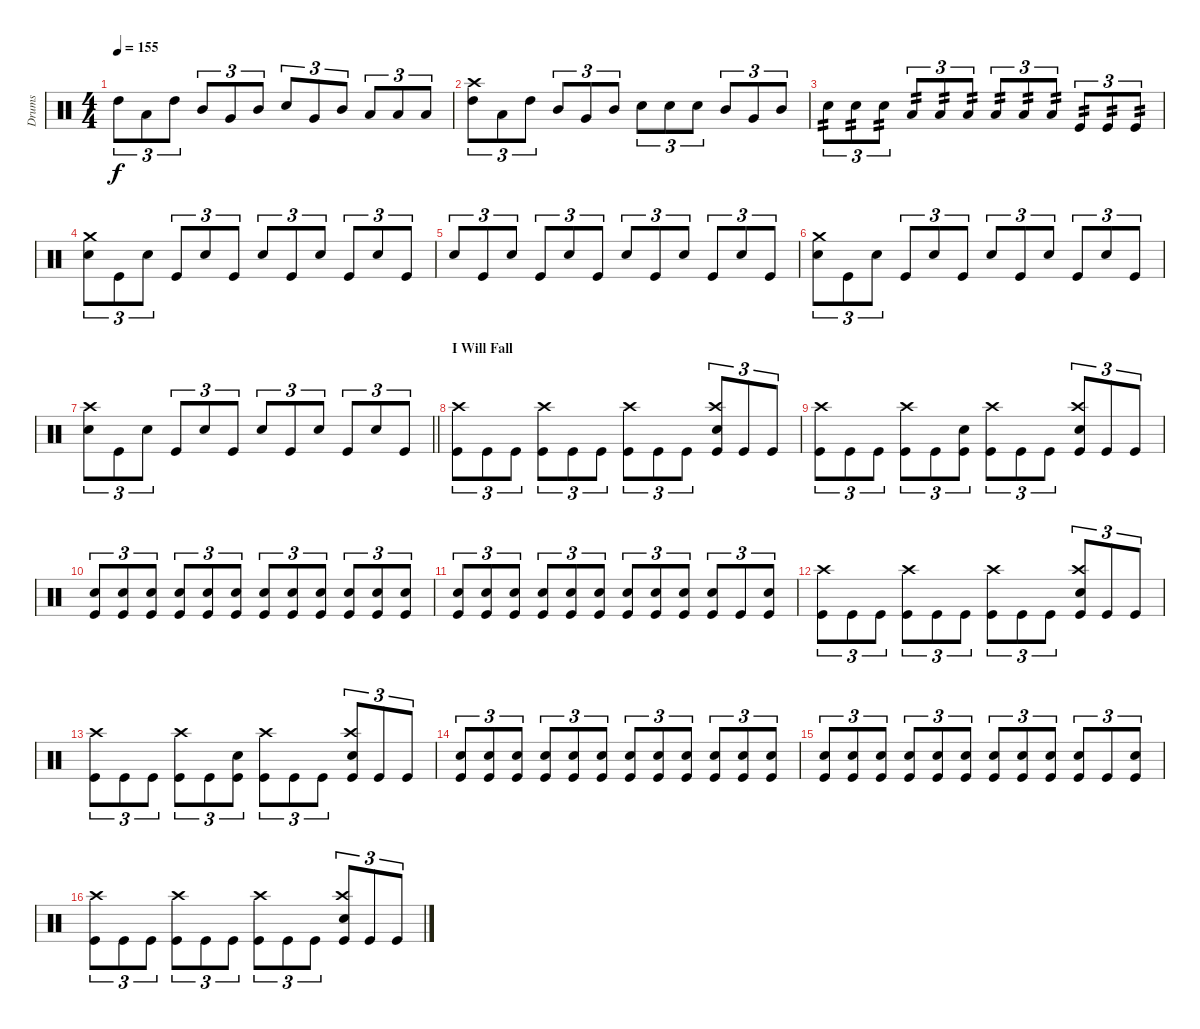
\track ("Drums" "Drums") {instrument percussion}
\staff {score}
\articulation defaults
\ts (4 4)
\tempo 155
\clef neutral
\ks c "High Tom (hit)".8{tu (3 2) dy f} "Low Tom (hit)".8{tu (3 2)} "High Tom (hit)".8{tu (3 2)} "Mid Tom (hit)".8{tu (3 2)} "Very Low Tom (hit)".8{tu (3 2)} "Mid Tom (hit)".8{tu (3 2)} "Electric Snare (hit)".8{tu (3 2)} "Very Low Tom (hit)".8{tu (3 2)} "Mid Tom (hit)".8{tu (3 2)} "Low Tom (hit)".8{tu (3 2)} "Low Floor Tom (hit)".8{tu (3 2)} "Low Tom (hit)".8{tu (3 2)}
|
("Crash high (hit)" "High Tom (hit)").8{tu (3 2)} "Low Tom (hit)".8{tu (3 2)} "High Tom (hit)".8{tu (3 2)} "Mid Tom (hit)".8{tu (3 2)} "Very Low Tom (hit)".8{tu (3 2)} "Mid Tom (hit)".8{tu (3 2)} "Electric Snare (hit)".8{tu (3 2)} "Electric Snare (hit)".8{tu (3 2)} "Electric Snare (hit)".8{tu (3 2)} "Mid Tom (hit)".8{tu (3 2)} "Very Low Tom (hit)".8{tu (3 2)} "Mid Tom (hit)".8{tu (3 2)} |
"Electric Snare (hit)".8{tu (3 2) tp 2} "Electric Snare (hit)".8{tu (3 2) tp 2} "Electric Snare (hit)".8{tu (3 2) tp 2} "Low Tom (hit)".8{tu (3 2) tp 2} "Low Tom (hit)".8{tu (3 2) tp 2} "Low Tom (hit)".8{tu (3 2) tp 2} "Low Floor Tom (hit)".8{tu (3 2) tp 2} "Low Floor Tom (hit)".8{tu (3 2) tp 2} "Low Floor Tom (hit)".8{tu (3 2) tp 2} "Kick (hit)".8{tu (3 2) tp 2} "Kick (hit)".8{tu (3 2) tp 2} "Kick (hit)".8{tu (3 2) tp 2} |
("Crash medium (hit)" "Electric Snare (hit)").8{tu (3 2)} "Kick (hit)".8{tu (3 2)} "Electric Snare (hit)".8{tu (3 2)} "Kick (hit)".8{tu (3 2)} "Electric Snare (hit)".8{tu (3 2)} "Kick (hit)".8{tu (3 2)} "Electric Snare (hit)".8{tu (3 2)} "Kick (hit)".8{tu (3 2)} "Electric Snare (hit)".8{tu (3 2)} "Kick (hit)".8{tu (3 2)} "Electric Snare (hit)".8{tu (3 2)} "Kick (hit)".8{tu (3 2)} |
"Electric Snare (hit)".8{tu (3 2)} "Kick (hit)".8{tu (3 2)} "Electric Snare (hit)".8{tu (3 2)} "Kick (hit)".8{tu (3 2)} "Electric Snare (hit)".8{tu (3 2)} "Kick (hit)".8{tu (3 2)} "Electric Snare (hit)".8{tu (3 2)} "Kick (hit)".8{tu (3 2)} "Electric Snare (hit)".8{tu (3 2)} "Kick (hit)".8{tu (3 2)} "Electric Snare (hit)".8{tu (3 2)} "Kick (hit)".8{tu (3 2)} |
("Crash medium (hit)" "Electric Snare (hit)").8{tu (3 2)} "Kick (hit)".8{tu (3 2)} "Electric Snare (hit)".8{tu (3 2)} "Kick (hit)".8{tu (3 2)} "Electric Snare (hit)".8{tu (3 2)} "Kick (hit)".8{tu (3 2)} "Electric Snare (hit)".8{tu (3 2)} "Kick (hit)".8{tu (3 2)} "Electric Snare (hit)".8{tu (3 2)} "Kick (hit)".8{tu (3 2)} "Electric Snare (hit)".8{tu (3 2)} "Kick (hit)".8{tu (3 2)} |
\barLineRight lightlight
("Crash high (hit)" "Electric Snare (hit)").8{tu (3 2)} "Kick (hit)".8{tu (3 2)} "Electric Snare (hit)".8{tu (3 2)} "Kick (hit)".8{tu (3 2)} "Electric Snare (hit)".8{tu (3 2)} "Kick (hit)".8{tu (3 2)} "Electric Snare (hit)".8{tu (3 2)} "Kick (hit)".8{tu (3 2)} "Electric Snare (hit)".8{tu (3 2)} "Kick (hit)".8{tu (3 2)} "Electric Snare (hit)".8{tu (3 2)} "Kick (hit)".8{tu (3 2)} |
\section ("" "I Will Fall")
("Crash high (hit)" "Kick (hit)").8{tu (3 2)} "Kick (hit)".8{tu (3 2)} "Kick (hit)".8{tu (3 2)} ("Crash high (hit)" "Kick (hit)").8{tu (3 2)} "Kick (hit)".8{tu (3 2)} "Kick (hit)".8{tu (3 2)} ("Crash high (hit)" "Kick (hit)").8{tu (3 2)} "Kick (hit)".8{tu (3 2)} "Kick (hit)".8{tu (3 2)} ("Crash high (hit)" "Electric Snare (hit)" "Kick (hit)").8{tu (3 2)} "Kick (hit)".8{tu (3 2)} "Kick (hit)".8{tu (3 2)} |
("Crash high (hit)" "Kick (hit)").8{tu (3 2)} "Kick (hit)".8{tu (3 2)} "Kick (hit)".8{tu (3 2)} ("Crash high (hit)" "Kick (hit)").8{tu (3 2)} "Kick (hit)".8{tu (3 2)} ("Electric Snare (hit)" "Kick (hit)").8{tu (3 2)} ("Crash high (hit)" "Kick (hit)").8{tu (3 2)} "Kick (hit)".8{tu (3 2)} "Kick (hit)".8{tu (3 2)} ("Crash high (hit)" "Electric Snare (hit)" "Kick (hit)").8{tu (3 2)} "Kick (hit)".8{tu (3 2)} "Kick (hit)".8{tu (3 2)} |
("Electric Snare (hit)" "Kick (hit)").8{tu (3 2)} ("Electric Snare (hit)" "Kick (hit)").8{tu (3 2)} ("Electric Snare (hit)" "Kick (hit)").8{tu (3 2)} ("Electric Snare (hit)" "Kick (hit)").8{tu (3 2)} ("Electric Snare (hit)" "Kick (hit)").8{tu (3 2)} ("Electric Snare (hit)" "Kick (hit)").8{tu (3 2)} ("Electric Snare (hit)" "Kick (hit)").8{tu (3 2)} ("Electric Snare (hit)" "Kick (hit)").8{tu (3 2)} ("Electric Snare (hit)" "Kick (hit)").8{tu (3 2)} ("Electric Snare (hit)" "Kick (hit)").8{tu (3 2)} ("Electric Snare (hit)" "Kick (hit)").8{tu (3 2)} ("Electric Snare (hit)" "Kick (hit)").8{tu (3 2)} |
("Electric Snare (hit)" "Kick (hit)").8{tu (3 2)} ("Electric Snare (hit)" "Kick (hit)").8{tu (3 2)} ("Electric Snare (hit)" "Kick (hit)").8{tu (3 2)} ("Electric Snare (hit)" "Kick (hit)").8{tu (3 2)} ("Electric Snare (hit)" "Kick (hit)").8{tu (3 2)} ("Electric Snare (hit)" "Kick (hit)").8{tu (3 2)} ("Electric Snare (hit)" "Kick (hit)").8{tu (3 2)} ("Electric Snare (hit)" "Kick (hit)").8{tu (3 2)} ("Electric Snare (hit)" "Kick (hit)").8{tu (3 2)} ("Electric Snare (hit)" "Kick (hit)").8{tu (3 2)} "Kick (hit)".8{tu (3 2)} ("Electric Snare (hit)" "Kick (hit)").8{tu (3 2)} |
("Crash high (hit)" "Kick (hit)").8{tu (3 2)} "Kick (hit)".8{tu (3 2)} "Kick (hit)".8{tu (3 2)} ("Crash high (hit)" "Kick (hit)").8{tu (3 2)} "Kick (hit)".8{tu (3 2)} "Kick (hit)".8{tu (3 2)} ("Crash high (hit)" "Kick (hit)").8{tu (3 2)} "Kick (hit)".8{tu (3 2)} "Kick (hit)".8{tu (3 2)} ("Crash high (hit)" "Electric Snare (hit)" "Kick (hit)").8{tu (3 2)} "Kick (hit)".8{tu (3 2)} "Kick (hit)".8{tu (3 2)} |
("Crash high (hit)" "Kick (hit)").8{tu (3 2)} "Kick (hit)".8{tu (3 2)} "Kick (hit)".8{tu (3 2)} ("Crash high (hit)" "Kick (hit)").8{tu (3 2)} "Kick (hit)".8{tu (3 2)} ("Electric Snare (hit)" "Kick (hit)").8{tu (3 2)} ("Crash high (hit)" "Kick (hit)").8{tu (3 2)} "Kick (hit)".8{tu (3 2)} "Kick (hit)".8{tu (3 2)} ("Crash high (hit)" "Electric Snare (hit)" "Kick (hit)").8{tu (3 2)} "Kick (hit)".8{tu (3 2)} "Kick (hit)".8{tu (3 2)} |
("Electric Snare (hit)" "Kick (hit)").8{tu (3 2)} ("Electric Snare (hit)" "Kick (hit)").8{tu (3 2)} ("Electric Snare (hit)" "Kick (hit)").8{tu (3 2)} ("Electric Snare (hit)" "Kick (hit)").8{tu (3 2)} ("Electric Snare (hit)" "Kick (hit)").8{tu (3 2)} ("Electric Snare (hit)" "Kick (hit)").8{tu (3 2)} ("Electric Snare (hit)" "Kick (hit)").8{tu (3 2)} ("Electric Snare (hit)" "Kick (hit)").8{tu (3 2)} ("Electric Snare (hit)" "Kick (hit)").8{tu (3 2)} ("Electric Snare (hit)" "Kick (hit)").8{tu (3 2)} ("Electric Snare (hit)" "Kick (hit)").8{tu (3 2)} ("Electric Snare (hit)" "Kick (hit)").8{tu (3 2)} |
("Electric Snare (hit)" "Kick (hit)").8{tu (3 2)} ("Electric Snare (hit)" "Kick (hit)").8{tu (3 2)} ("Electric Snare (hit)" "Kick (hit)").8{tu (3 2)} ("Electric Snare (hit)" "Kick (hit)").8{tu (3 2)} ("Electric Snare (hit)" "Kick (hit)").8{tu (3 2)} ("Electric Snare (hit)" "Kick (hit)").8{tu (3 2)} ("Electric Snare (hit)" "Kick (hit)").8{tu (3 2)} ("Electric Snare (hit)" "Kick (hit)").8{tu (3 2)} ("Electric Snare (hit)" "Kick (hit)").8{tu (3 2)} ("Electric Snare (hit)" "Kick (hit)").8{tu (3 2)} "Kick (hit)".8{tu (3 2)} ("Electric Snare (hit)" "Kick (hit)").8{tu (3 2)} |
("Crash high (hit)" "Kick (hit)").8{tu (3 2)} "Kick (hit)".8{tu (3 2)} "Kick (hit)".8{tu (3 2)} ("Crash high (hit)" "Kick (hit)").8{tu (3 2)} "Kick (hit)".8{tu (3 2)} "Kick (hit)".8{tu (3 2)} ("Crash high (hit)" "Kick (hit)").8{tu (3 2)} "Kick (hit)".8{tu (3 2)} "Kick (hit)".8{tu (3 2)} ("Crash high (hit)" "Electric Snare (hit)" "Kick (hit)").8{tu (3 2)} "Kick (hit)".8{tu (3 2)} "Kick (hit)".8{tu (3 2)}
